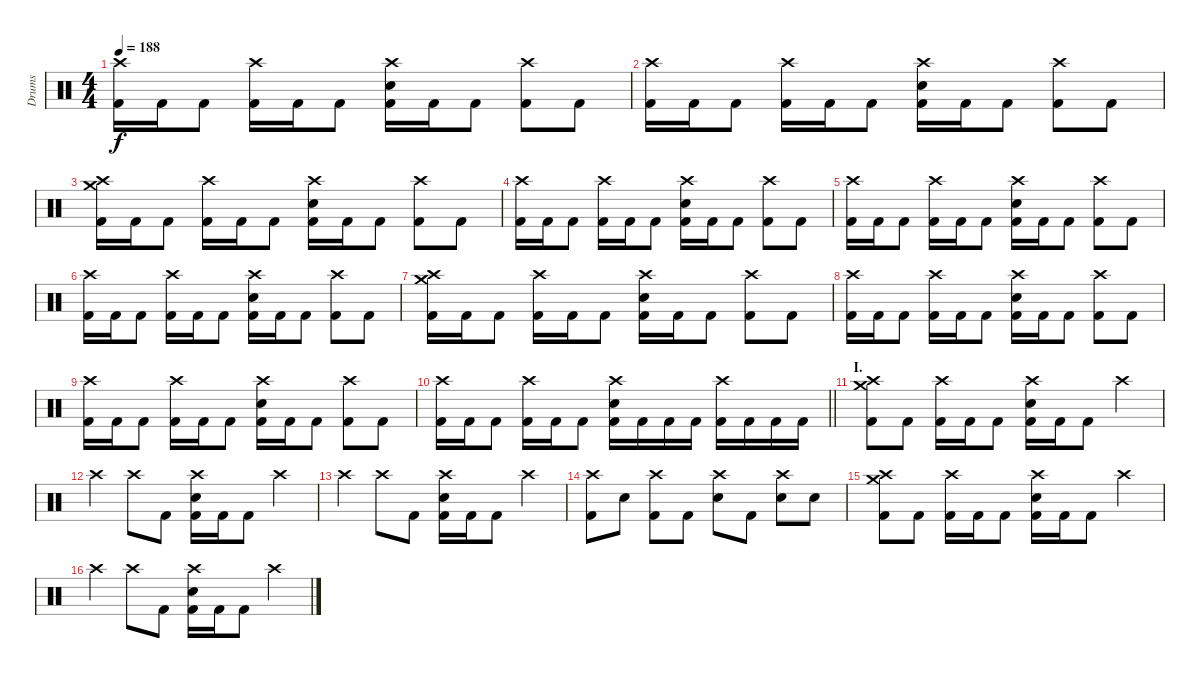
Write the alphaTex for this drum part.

\track ("Drums" "Drums") {instrument percussion}
\staff {score}
\articulation defaults
\ts (4 4)
\tempo 188
\clef neutral
\ks c
("Crash high (hit)" "Kick (hit) 2").16{dy f} "Kick (hit) 2".16 "Kick (hit) 2".8 ("Crash high (hit)" "Kick (hit) 2").16 "Kick (hit) 2".16 "Kick (hit) 2".8 ("Crash high (hit)" "Electric Snare (hit)" "Kick (hit) 2").16 "Kick (hit) 2".16 "Kick (hit) 2".8 ("Crash high (hit)" "Kick (hit) 2").8 "Kick (hit) 2".8 |
("Crash high (hit)" "Kick (hit) 2").16 "Kick (hit) 2".16 "Kick (hit) 2".8 ("Crash high (hit)" "Kick (hit) 2").16 "Kick (hit) 2".16 "Kick (hit) 2".8 ("Crash high (hit)" "Electric Snare (hit)" "Kick (hit) 2").16 "Kick (hit) 2".16 "Kick (hit) 2".8 ("Crash high (hit)" "Kick (hit) 2").8 "Kick (hit) 2".8 |
("Crash medium (hit)" "Crash high (hit)" "Kick (hit) 2").16 "Kick (hit) 2".16 "Kick (hit) 2".8 ("Crash high (hit)" "Kick (hit) 2").16 "Kick (hit) 2".16 "Kick (hit) 2".8 ("Crash high (hit)" "Electric Snare (hit)" "Kick (hit) 2").16 "Kick (hit) 2".16 "Kick (hit) 2".8 ("Crash high (hit)" "Kick (hit) 2").8 "Kick (hit) 2".8 |
("Crash high (hit)" "Kick (hit) 2").16 "Kick (hit) 2".16 "Kick (hit) 2".8 ("Crash high (hit)" "Kick (hit) 2").16 "Kick (hit) 2".16 "Kick (hit) 2".8 ("Crash high (hit)" "Electric Snare (hit)" "Kick (hit) 2").16 "Kick (hit) 2".16 "Kick (hit) 2".8 ("Crash high (hit)" "Kick (hit) 2").8 "Kick (hit) 2".8 |
("Crash high (hit)" "Kick (hit) 2").16 "Kick (hit) 2".16 "Kick (hit) 2".8 ("Crash high (hit)" "Kick (hit) 2").16 "Kick (hit) 2".16 "Kick (hit) 2".8 ("Crash high (hit)" "Electric Snare (hit)" "Kick (hit) 2").16 "Kick (hit) 2".16 "Kick (hit) 2".8 ("Crash high (hit)" "Kick (hit) 2").8 "Kick (hit) 2".8 |
("Crash high (hit)" "Kick (hit) 2").16 "Kick (hit) 2".16 "Kick (hit) 2".8 ("Crash high (hit)" "Kick (hit) 2").16 "Kick (hit) 2".16 "Kick (hit) 2".8 ("Crash high (hit)" "Electric Snare (hit)" "Kick (hit) 2").16 "Kick (hit) 2".16 "Kick (hit) 2".8 ("Crash high (hit)" "Kick (hit) 2").8 "Kick (hit) 2".8 |
("Crash medium (hit)" "Crash high (hit)" "Kick (hit) 2").16 "Kick (hit) 2".16 "Kick (hit) 2".8 ("Crash high (hit)" "Kick (hit) 2").16 "Kick (hit) 2".16 "Kick (hit) 2".8 ("Crash high (hit)" "Electric Snare (hit)" "Kick (hit) 2").16 "Kick (hit) 2".16 "Kick (hit) 2".8 ("Crash high (hit)" "Kick (hit) 2").8 "Kick (hit) 2".8 |
("Crash high (hit)" "Kick (hit) 2").16 "Kick (hit) 2".16 "Kick (hit) 2".8 ("Crash high (hit)" "Kick (hit) 2").16 "Kick (hit) 2".16 "Kick (hit) 2".8 ("Crash high (hit)" "Electric Snare (hit)" "Kick (hit) 2").16 "Kick (hit) 2".16 "Kick (hit) 2".8 ("Crash high (hit)" "Kick (hit) 2").8 "Kick (hit) 2".8 |
("Crash high (hit)" "Kick (hit) 2").16 "Kick (hit) 2".16 "Kick (hit) 2".8 ("Crash high (hit)" "Kick (hit) 2").16 "Kick (hit) 2".16 "Kick (hit) 2".8 ("Crash high (hit)" "Electric Snare (hit)" "Kick (hit) 2").16 "Kick (hit) 2".16 "Kick (hit) 2".8 ("Crash high (hit)" "Kick (hit) 2").8 "Kick (hit) 2".8 |
\barLineRight lightlight
("Crash high (hit)" "Kick (hit) 2").16 "Kick (hit) 2".16 "Kick (hit) 2".8 ("Crash high (hit)" "Kick (hit) 2").16 "Kick (hit) 2".16 "Kick (hit) 2".8 ("Crash high (hit)" "Electric Snare (hit)" "Kick (hit) 2").16 "Kick (hit) 2".16 "Kick (hit) 2".16 "Kick (hit) 2".16 ("Crash high (hit)" "Kick (hit) 2").16 "Kick (hit) 2".16 "Kick (hit) 2".16 "Kick (hit) 2".16 |
\section ("" "I.")
("Crash medium (hit)" "Crash high (hit)" "Kick (hit) 2").8 "Kick (hit) 2".8 ("Crash high (hit)" "Kick (hit) 2").16 "Kick (hit) 2".16 "Kick (hit) 2".8 ("Crash high (hit)" "Electric Snare (hit)" "Kick (hit) 2").16 "Kick (hit) 2".16 "Kick (hit) 2".8 "Crash high (hit)".4 |
"Crash high (hit)".4 "Crash high (hit)".8 "Kick (hit) 2".8 ("Crash high (hit)" "Electric Snare (hit)" "Kick (hit) 2").16 "Kick (hit) 2".16 "Kick (hit) 2".8 "Crash high (hit)".4 |
"Crash high (hit)".4 "Crash high (hit)".8 "Kick (hit) 2".8 ("Crash high (hit)" "Electric Snare (hit)" "Kick (hit) 2").16 "Kick (hit) 2".16 "Kick (hit) 2".8 "Crash high (hit)".4 |
("Crash high (hit)" "Kick (hit) 2").8 "Electric Snare (hit)".8 ("Crash high (hit)" "Kick (hit) 2").8 "Kick (hit) 2".8 ("Crash high (hit)" "Electric Snare (hit)").8 "Kick (hit) 2".8 ("Crash high (hit)" "Electric Snare (hit)").8 "Electric Snare (hit)".8 |
("Crash medium (hit)" "Crash high (hit)" "Kick (hit) 2").8 "Kick (hit) 2".8 ("Crash high (hit)" "Kick (hit) 2").16 "Kick (hit) 2".16 "Kick (hit) 2".8 ("Crash high (hit)" "Electric Snare (hit)" "Kick (hit) 2").16 "Kick (hit) 2".16 "Kick (hit) 2".8 "Crash high (hit)".4 |
"Crash high (hit)".4 "Crash high (hit)".8 "Kick (hit) 2".8 ("Crash high (hit)" "Electric Snare (hit)" "Kick (hit) 2").16 "Kick (hit) 2".16 "Kick (hit) 2".8 "Crash high (hit)".4
